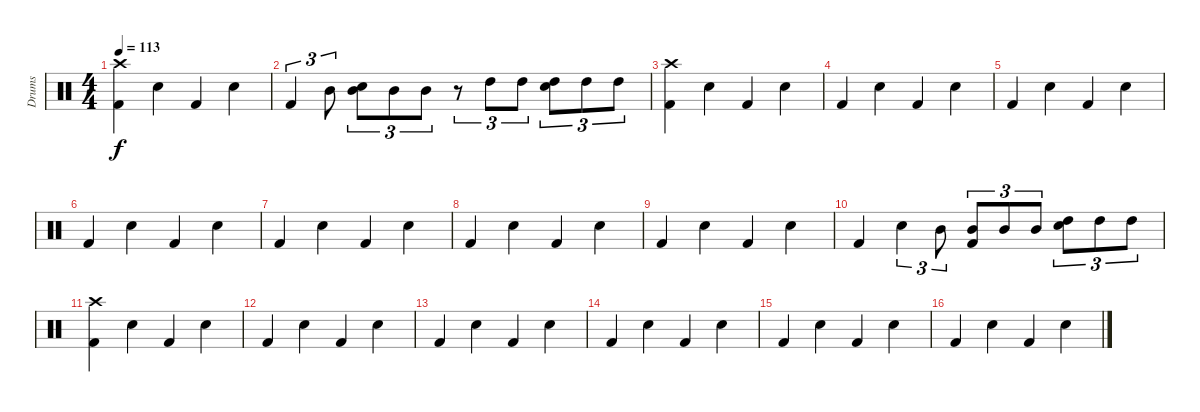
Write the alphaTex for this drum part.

\track ("Drums" "Drums") {instrument percussion}
\staff {score}
\articulation defaults
\ts (4 4)
\tempo 113
\clef neutral
\ks c
("Crash high (hit)" "Kick (hit) 2").4{dy f} "Electric Snare (hit)".4 "Kick (hit) 2".4 "Electric Snare (hit)".4 |
"Kick (hit) 2".4{tu (3 2)} "Mid Tom (hit)".8{tu (3 2)} ("Mid Tom (hit)" "Electric Snare (hit)").8{tu (3 2)} "Mid Tom (hit)".8{tu (3 2)} "Mid Tom (hit)".8{tu (3 2)} r.8{tu (3 2)} "High Tom (hit)".8{tu (3 2)} "High Tom (hit)".8{tu (3 2)} ("High Tom (hit)" "Electric Snare (hit)").8{tu (3 2)} "High Tom (hit)".8{tu (3 2)} "High Tom (hit)".8{tu (3 2)} |
("Crash high (hit)" "Kick (hit) 2").4 "Electric Snare (hit)".4 "Kick (hit) 2".4 "Electric Snare (hit)".4 |
"Kick (hit) 2".4 "Electric Snare (hit)".4 "Kick (hit) 2".4 "Electric Snare (hit)".4 |
"Kick (hit) 2".4 "Electric Snare (hit)".4 "Kick (hit) 2".4 "Electric Snare (hit)".4 |
"Kick (hit) 2".4 "Electric Snare (hit)".4 "Kick (hit) 2".4 "Electric Snare (hit)".4 |
"Kick (hit) 2".4 "Electric Snare (hit)".4 "Kick (hit) 2".4 "Electric Snare (hit)".4 |
"Kick (hit) 2".4 "Electric Snare (hit)".4 "Kick (hit) 2".4 "Electric Snare (hit)".4 |
"Kick (hit) 2".4 "Electric Snare (hit)".4 "Kick (hit) 2".4 "Electric Snare (hit)".4 |
"Kick (hit) 2".4 "Electric Snare (hit)".4{tu (3 2)} "Mid Tom (hit)".8{tu (3 2)} ("Mid Tom (hit)" "Kick (hit) 2").8{tu (3 2)} "Mid Tom (hit)".8{tu (3 2)} "Mid Tom (hit)".8{tu (3 2)} ("High Tom (hit)" "Electric Snare (hit)").8{tu (3 2)} "High Tom (hit)".8{tu (3 2)} "High Tom (hit)".8{tu (3 2)} |
("Crash high (hit)" "Kick (hit) 2").4 "Electric Snare (hit)".4 "Kick (hit) 2".4 "Electric Snare (hit)".4 |
"Kick (hit) 2".4 "Electric Snare (hit)".4 "Kick (hit) 2".4 "Electric Snare (hit)".4 |
"Kick (hit) 2".4 "Electric Snare (hit)".4 "Kick (hit) 2".4 "Electric Snare (hit)".4 |
"Kick (hit) 2".4 "Electric Snare (hit)".4 "Kick (hit) 2".4 "Electric Snare (hit)".4 |
"Kick (hit) 2".4 "Electric Snare (hit)".4 "Kick (hit) 2".4 "Electric Snare (hit)".4 |
"Kick (hit) 2".4 "Electric Snare (hit)".4 "Kick (hit) 2".4 "Electric Snare (hit)".4
